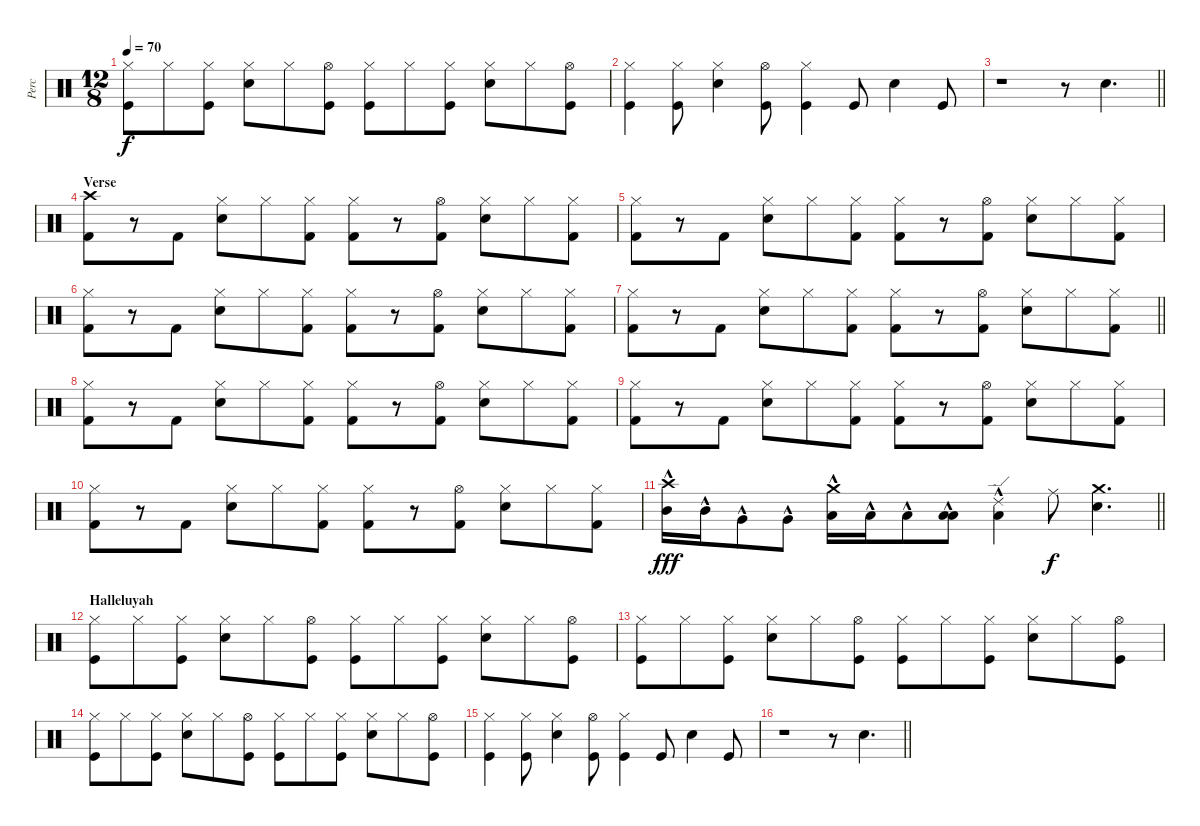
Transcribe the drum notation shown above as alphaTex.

\track ("Perc" "Perc") {instrument percussion}
\staff {score}
\articulation defaults
\ts (12 8)
\tempo 70
\clef neutral
\ks c
("Hi-Hat (closed)" "Kick (hit)").8{dy f} "Hi-Hat (closed)".8 ("Hi-Hat (closed)" "Kick (hit)").8 ("Hi-Hat (closed)" "Snare (hit) 2").8 "Hi-Hat (closed)".8 ("Hi-Hat (open)" "Kick (hit)").8 ("Hi-Hat (closed)" "Kick (hit)").8 "Hi-Hat (closed)".8 ("Hi-Hat (closed)" "Kick (hit)").8 ("Hi-Hat (closed)" "Snare (hit) 2").8 "Hi-Hat (closed)".8 ("Hi-Hat (open)" "Kick (hit)").8 |
("Hi-Hat (closed)" "Kick (hit)").4 ("Hi-Hat (closed)" "Kick (hit)").8 ("Hi-Hat (closed)" "Snare (hit) 2").4 ("Hi-Hat (open)" "Kick (hit)").8 ("Hi-Hat (closed)" "Kick (hit)").4 "Kick (hit)".8 "Snare (hit) 2".4 "Kick (hit)".8 |
\barLineRight lightlight
r.1 r.8 "Snare (hit) 2".4{d} |
\section ("" "Verse")
("Crash high (hit)" "Kick (hit) 2").8 r.8 "Kick (hit) 2".8 ("Hi-Hat (closed)" "Electric Snare (hit)").8 "Hi-Hat (closed)".8 ("Hi-Hat (closed)" "Kick (hit) 2").8 ("Hi-Hat (closed)" "Kick (hit) 2").8 r.8 ("Hi-Hat (open)" "Kick (hit) 2").8 ("Hi-Hat (closed)" "Electric Snare (hit)").8 "Hi-Hat (closed)".8 ("Hi-Hat (closed)" "Kick (hit) 2").8 |
("Kick (hit) 2" "Hi-Hat (closed)").8 r.8 "Kick (hit) 2".8 ("Hi-Hat (closed)" "Electric Snare (hit)").8 "Hi-Hat (closed)".8 ("Hi-Hat (closed)" "Kick (hit) 2").8 ("Hi-Hat (closed)" "Kick (hit) 2").8 r.8 ("Hi-Hat (open)" "Kick (hit) 2").8 ("Hi-Hat (closed)" "Electric Snare (hit)").8 "Hi-Hat (closed)".8 ("Hi-Hat (closed)" "Kick (hit) 2").8 |
("Kick (hit) 2" "Hi-Hat (closed)").8 r.8 "Kick (hit) 2".8 ("Hi-Hat (closed)" "Electric Snare (hit)").8 "Hi-Hat (closed)".8 ("Hi-Hat (closed)" "Kick (hit) 2").8 ("Hi-Hat (closed)" "Kick (hit) 2").8 r.8 ("Hi-Hat (open)" "Kick (hit) 2").8 ("Hi-Hat (closed)" "Electric Snare (hit)").8 "Hi-Hat (closed)".8 ("Hi-Hat (closed)" "Kick (hit) 2").8 |
\barLineRight lightlight
("Kick (hit) 2" "Hi-Hat (closed)").8 r.8 "Kick (hit) 2".8 ("Hi-Hat (closed)" "Electric Snare (hit)").8 "Hi-Hat (closed)".8 ("Hi-Hat (closed)" "Kick (hit) 2").8 ("Hi-Hat (closed)" "Kick (hit) 2").8 r.8 ("Hi-Hat (open)" "Kick (hit) 2").8 ("Hi-Hat (closed)" "Electric Snare (hit)").8 "Hi-Hat (closed)".8 ("Hi-Hat (closed)" "Kick (hit) 2").8 |
("Kick (hit) 2" "Hi-Hat (closed)").8 r.8 "Kick (hit) 2".8 ("Hi-Hat (closed)" "Electric Snare (hit)").8 "Hi-Hat (closed)".8 ("Hi-Hat (closed)" "Kick (hit) 2").8 ("Hi-Hat (closed)" "Kick (hit) 2").8 r.8 ("Hi-Hat (open)" "Kick (hit) 2").8 ("Hi-Hat (closed)" "Electric Snare (hit)").8 "Hi-Hat (closed)".8 ("Hi-Hat (closed)" "Kick (hit) 2").8 |
("Kick (hit) 2" "Hi-Hat (closed)").8 r.8 "Kick (hit) 2".8 ("Hi-Hat (closed)" "Electric Snare (hit)").8 "Hi-Hat (closed)".8 ("Hi-Hat (closed)" "Kick (hit) 2").8 ("Hi-Hat (closed)" "Kick (hit) 2").8 r.8 ("Hi-Hat (open)" "Kick (hit) 2").8 ("Hi-Hat (closed)" "Electric Snare (hit)").8 "Hi-Hat (closed)".8 ("Hi-Hat (closed)" "Kick (hit) 2").8 |
("Kick (hit) 2" "Hi-Hat (closed)").8 r.8 "Kick (hit) 2".8 ("Hi-Hat (closed)" "Electric Snare (hit)").8 "Hi-Hat (closed)".8 ("Hi-Hat (closed)" "Kick (hit) 2").8 ("Hi-Hat (closed)" "Kick (hit) 2").8 r.8 ("Hi-Hat (open)" "Kick (hit) 2").8 ("Hi-Hat (closed)" "Electric Snare (hit)").8 "Hi-Hat (closed)".8 ("Hi-Hat (closed)" "Kick (hit) 2").8 |
\barLineRight lightlight
("Mid Tom (hit)"{hac} "Crash high (hit)").16{dy fff} "Mid Tom (hit)"{hac}.16 "Very Low Tom (hit)"{hac}.8 "Very Low Tom (hit)"{hac}.8 ("Low Tom (hit)"{hac} "Crash medium (hit)").16 "Low Tom (hit)"{hac}.16 "Low Floor Tom (hit)"{hac}.8 ("Low Floor Tom (hit)"{hac} "Low Floor Tom (hit)").8 ("Low Floor Tom (hit)"{hac} "Ride (edge) 2").4 "Ride (middle)".8{dy f} ("Electric Snare (hit)" "Crash medium (hit)").4{d} |
\section ("" "Halleluyah")
("Hi-Hat (closed)" "Kick (hit)").8 "Hi-Hat (closed)".8 ("Hi-Hat (closed)" "Kick (hit)").8 ("Hi-Hat (closed)" "Snare (hit) 2").8 "Hi-Hat (closed)".8 ("Hi-Hat (open)" "Kick (hit)").8 ("Hi-Hat (closed)" "Kick (hit)").8 "Hi-Hat (closed)".8 ("Hi-Hat (closed)" "Kick (hit)").8 ("Hi-Hat (closed)" "Snare (hit) 2").8 "Hi-Hat (closed)".8 ("Hi-Hat (open)" "Kick (hit)").8 |
("Hi-Hat (closed)" "Kick (hit)").8 "Hi-Hat (closed)".8 ("Hi-Hat (closed)" "Kick (hit)").8 ("Hi-Hat (closed)" "Snare (hit) 2").8 "Hi-Hat (closed)".8 ("Hi-Hat (open)" "Kick (hit)").8 ("Hi-Hat (closed)" "Kick (hit)").8 "Hi-Hat (closed)".8 ("Hi-Hat (closed)" "Kick (hit)").8 ("Hi-Hat (closed)" "Snare (hit) 2").8 "Hi-Hat (closed)".8 ("Hi-Hat (open)" "Kick (hit)").8 |
("Hi-Hat (closed)" "Kick (hit)").8 "Hi-Hat (closed)".8 ("Hi-Hat (closed)" "Kick (hit)").8 ("Hi-Hat (closed)" "Snare (hit) 2").8 "Hi-Hat (closed)".8 ("Hi-Hat (open)" "Kick (hit)").8 ("Hi-Hat (closed)" "Kick (hit)").8 "Hi-Hat (closed)".8 ("Hi-Hat (closed)" "Kick (hit)").8 ("Hi-Hat (closed)" "Snare (hit) 2").8 "Hi-Hat (closed)".8 ("Hi-Hat (open)" "Kick (hit)").8 |
("Hi-Hat (closed)" "Kick (hit)").4 ("Hi-Hat (closed)" "Kick (hit)").8 ("Hi-Hat (closed)" "Snare (hit) 2").4 ("Hi-Hat (open)" "Kick (hit)").8 ("Hi-Hat (closed)" "Kick (hit)").4 "Kick (hit)".8 "Snare (hit) 2".4 "Kick (hit)".8 |
\barLineRight lightlight
r.1 r.8 "Snare (hit) 2".4{d}
